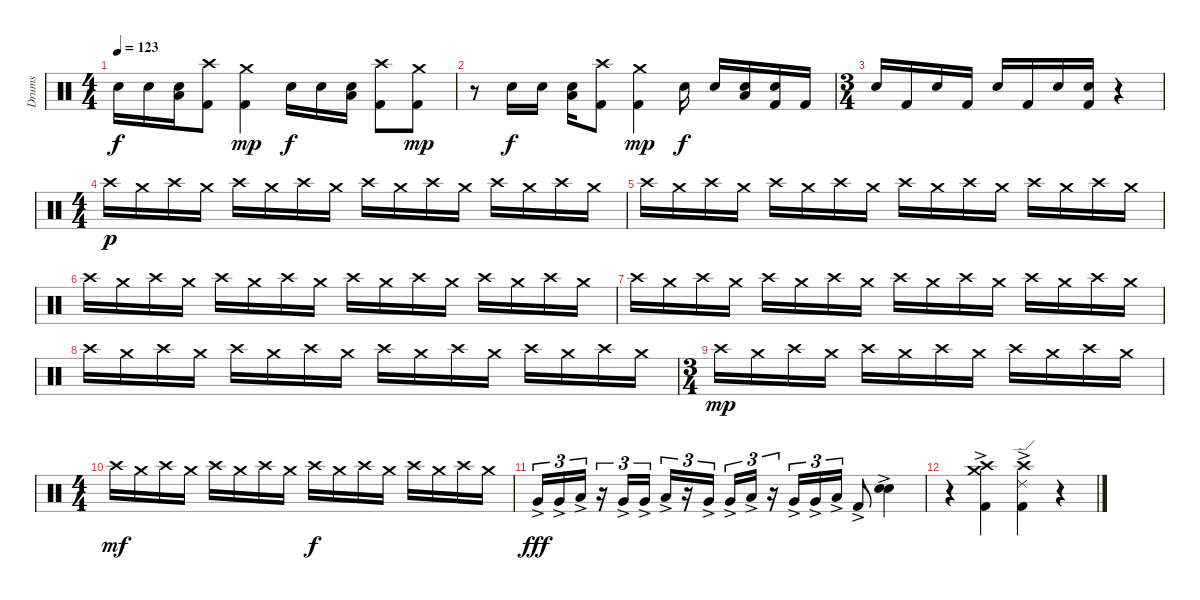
\track ("Drums" "Drums") {instrument percussion}
\staff {score}
\articulation defaults
\ts (4 4)
\tempo 123
\clef neutral
\ks c "Snare (hit) 2".16{dy f} "Snare (hit) 2".16
("Low Floor Tom (hit)" "Snare (hit) 2").16 ("Crash high (hit)" "Kick (hit) 2").8 ("Crash medium (hit)" "Kick (hit) 2").4{dy mp} "Snare (hit) 2".16{dy f} "Snare (hit) 2".16 ("Low Floor Tom (hit)" "Snare (hit) 2").16 ("Crash high (hit)" "Kick (hit) 2").8 ("Crash medium (hit)" "Kick (hit) 2").8{dy mp} |
r.8 "Snare (hit) 2".16{dy f} "Snare (hit) 2".16 ("Low Floor Tom (hit)" "Snare (hit) 2").16 ("Crash high (hit)" "Kick (hit) 2").8 ("Crash medium (hit)" "Kick (hit) 2").4{dy mp} "Snare (hit) 2".16{dy f} "Snare (hit) 2".16 ("Low Floor Tom (hit)" "Snare (hit) 2").16 ("Snare (hit) 2" "Kick (hit) 2").16 "Kick (hit) 2".16 |
\ts (3 4)
"Snare (hit) 2".16 "Kick (hit) 2".16 "Snare (hit) 2".16 "Kick (hit) 2".16 "Snare (hit) 2".16 "Kick (hit) 2".16 "Snare (hit) 2".16 ("Snare (hit) 2" "Kick (hit) 2").16 r.4 |
\ts (4 4)
"Crash high (hit)".16{dy p} "Crash medium (hit)".16 "Crash high (hit)".16 "Crash medium (hit)".16 "Crash high (hit)".16 "Crash medium (hit)".16 "Crash high (hit)".16 "Crash medium (hit)".16 "Crash high (hit)".16 "Crash medium (hit)".16 "Crash high (hit)".16 "Crash medium (hit)".16 "Crash high (hit)".16 "Crash medium (hit)".16 "Crash high (hit)".16 "Crash medium (hit)".16 |
"Crash high (hit)".16 "Crash medium (hit)".16 "Crash high (hit)".16 "Crash medium (hit)".16 "Crash high (hit)".16 "Crash medium (hit)".16 "Crash high (hit)".16 "Crash medium (hit)".16 "Crash high (hit)".16 "Crash medium (hit)".16 "Crash high (hit)".16 "Crash medium (hit)".16 "Crash high (hit)".16 "Crash medium (hit)".16 "Crash high (hit)".16 "Crash medium (hit)".16 |
"Crash high (hit)".16 "Crash medium (hit)".16 "Crash high (hit)".16 "Crash medium (hit)".16 "Crash high (hit)".16 "Crash medium (hit)".16 "Crash high (hit)".16 "Crash medium (hit)".16 "Crash high (hit)".16 "Crash medium (hit)".16 "Crash high (hit)".16 "Crash medium (hit)".16 "Crash high (hit)".16 "Crash medium (hit)".16 "Crash high (hit)".16 "Crash medium (hit)".16 |
"Crash high (hit)".16 "Crash medium (hit)".16 "Crash high (hit)".16 "Crash medium (hit)".16 "Crash high (hit)".16 "Crash medium (hit)".16 "Crash high (hit)".16 "Crash medium (hit)".16 "Crash high (hit)".16 "Crash medium (hit)".16 "Crash high (hit)".16 "Crash medium (hit)".16 "Crash high (hit)".16 "Crash medium (hit)".16 "Crash high (hit)".16 "Crash medium (hit)".16 |
"Crash high (hit)".16 "Crash medium (hit)".16 "Crash high (hit)".16 "Crash medium (hit)".16 "Crash high (hit)".16 "Crash medium (hit)".16 "Crash high (hit)".16 "Crash medium (hit)".16 "Crash high (hit)".16 "Crash medium (hit)".16 "Crash high (hit)".16 "Crash medium (hit)".16 "Crash high (hit)".16 "Crash medium (hit)".16 "Crash high (hit)".16 "Crash medium (hit)".16 |
\ts (3 4)
"Crash high (hit)".16{dy mp} "Crash medium (hit)".16 "Crash high (hit)".16 "Crash medium (hit)".16 "Crash high (hit)".16 "Crash medium (hit)".16 "Crash high (hit)".16 "Crash medium (hit)".16 "Crash high (hit)".16 "Crash medium (hit)".16 "Crash high (hit)".16 "Crash medium (hit)".16 |
\ts (4 4)
"Crash high (hit)".16{dy mf} "Crash medium (hit)".16 "Crash high (hit)".16 "Crash medium (hit)".16 "Crash high (hit)".16 "Crash medium (hit)".16 "Crash high (hit)".16 "Crash medium (hit)".16 "Crash high (hit)".16{dy f} "Crash medium (hit)".16 "Crash high (hit)".16 "Crash medium (hit)".16 "Crash high (hit)".16 "Crash medium (hit)".16 "Crash high (hit)".16 "Crash medium (hit)".16 |
"Very Low Tom (hit)"{ac}.16{tu (3 2) dy fff} "Very Low Tom (hit)"{ac}.16{tu (3 2)} "Low Floor Tom (hit)"{ac}.16{tu (3 2)} r.16{tu (3 2)} "Very Low Tom (hit)"{ac}.16{tu (3 2)} "Very Low Tom (hit)"{ac}.16{tu (3 2)} "Low Floor Tom (hit)"{ac}.16{tu (3 2)} r.16{tu (3 2)} "Very Low Tom (hit)"{ac}.16{tu (3 2)} "Very Low Tom (hit)"{ac}.16{tu (3 2)} "Low Floor Tom (hit)"{ac}.16{tu (3 2)} r.16{tu (3 2)} "Very Low Tom (hit)"{ac}.16{tu (3 2)} "Very Low Tom (hit)"{ac}.16{tu (3 2)} "Low Floor Tom (hit)"{ac}.16{tu (3 2)} "Kick (hit) 2"{ac}.8 ("Snare (hit) 2"{ac} "Snare (hit) 2"{ac}).4 |
r.4 ("Crash high (hit)"{ac} "Crash medium (hit)"{ac} "Kick (hit) 2"{ac}).4 ("Crash high (hit)"{ac} "Ride (edge) 2"{ac} "Kick (hit) 2"{ac}).4 r.4
